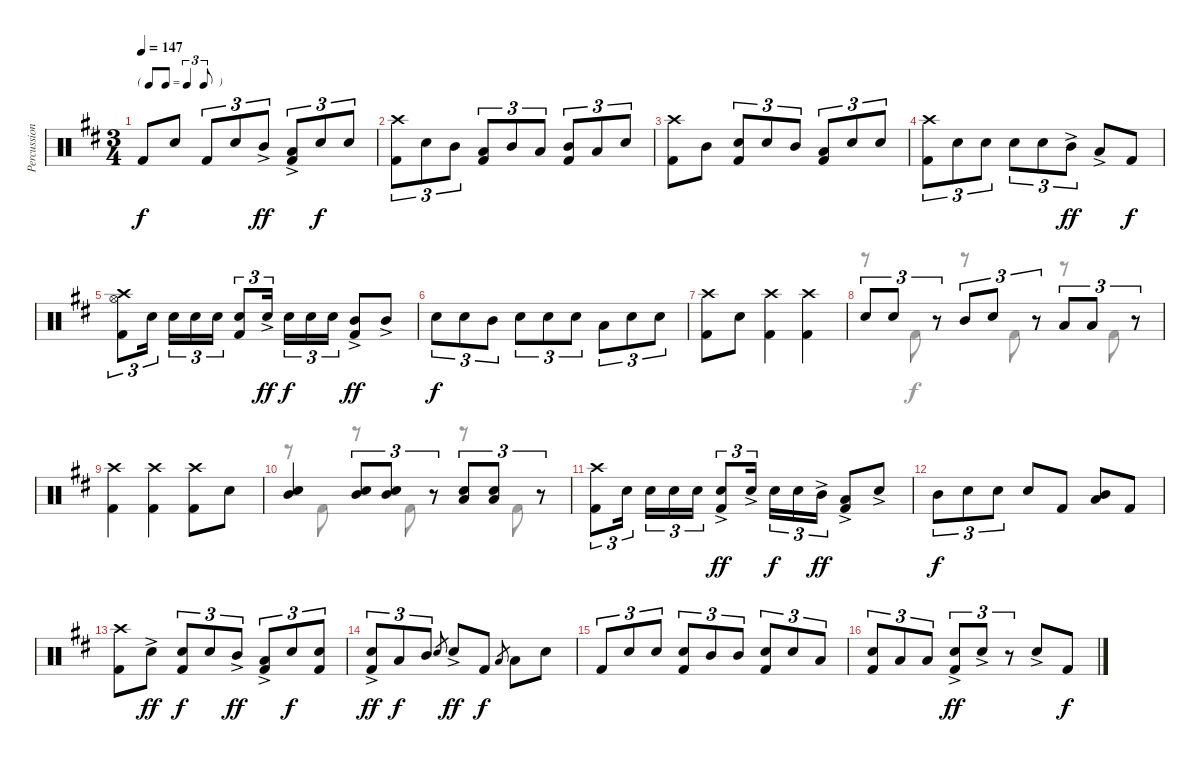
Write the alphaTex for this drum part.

\track ("Percussion" "Percussion") {instrument percussion}
\staff {score}
\articulation defaults
\voice
\ts (3 4)
\tf triplet8th
\tempo 147
\clef neutral
\ks d "Kick (hit) 2".8{dy f} "Snare (hit) 2".8 "Kick (hit) 2".8{tu (3 2)} "Snare (hit) 2".8{tu (3 2)} "Mid Tom (hit)"{ac}.8{tu (3 2) dy ff}
("Low Tom (hit)"{ac} "Kick (hit) 2").8{tu (3 2)} "Snare (hit) 2".8{tu (3 2) dy f} "Snare (hit) 2".8{tu (3 2)} |
("Crash high (hit)" "Kick (hit) 2").8{tu (3 2)} "Snare (hit) 2".8{tu (3 2)} "Mid Tom (hit)".8{tu (3 2)} ("Low Floor Tom (hit)" "Kick (hit) 2").8{tu (3 2)} "Mid Tom (hit)".8{tu (3 2)} "Low Floor Tom (hit)".8{tu (3 2)} ("Mid Tom (hit)" "Kick (hit) 2").8{tu (3 2)} "Low Floor Tom (hit)".8{tu (3 2)} "Snare (hit) 2".8{tu (3 2)} |
("Crash high (hit)" "Kick (hit) 2").8 "Mid Tom (hit)".8 ("Snare (hit) 2" "Kick (hit) 2").8{tu (3 2)} "Snare (hit) 2".8{tu (3 2)} "Mid Tom (hit)".8{tu (3 2)} ("Low Floor Tom (hit)" "Kick (hit) 2").8{tu (3 2)} "Snare (hit) 2".8{tu (3 2)} "Snare (hit) 2".8{tu (3 2)} |
("Crash high (hit)" "Kick (hit) 2").8{tu (3 2)} "Snare (hit) 2".8{tu (3 2)} "Snare (hit) 2".8{tu (3 2)} "Snare (hit) 2".8{tu (3 2)} "Snare (hit) 2".8{tu (3 2)} "Mid Tom (hit)"{ac}.8{tu (3 2) dy ff} "Low Tom (hit)"{ac}.8 "Kick (hit) 2".8{dy f} |
("Crash high (hit)" "Hi-Hat (open)" "Kick (hit) 2").8{tu (3 2)} "Snare (hit) 2".16{tu (3 2) beam splitsecondary} "Snare (hit) 2".16{tu (3 2)} "Snare (hit) 2".16{tu (3 2)} "Snare (hit) 2".16{tu (3 2)} ("Snare (hit) 2" "Kick (hit) 2").8{tu (3 2)} "Snare (hit) 2"{ac}.16{tu (3 2) dy ff beam splitsecondary} "Snare (hit) 2".16{tu (3 2) dy f} "Snare (hit) 2".16{tu (3 2)} "Snare (hit) 2".16{tu (3 2)} ("Mid Tom (hit)"{ac} "Kick (hit) 2").8{dy ff} "Mid Tom (hit)"{ac}.8 |
"Snare (hit) 2".8{tu (3 2) dy f} "Snare (hit) 2".8{tu (3 2)} "Mid Tom (hit)".8{tu (3 2)} "Snare (hit) 2".8{tu (3 2)} "Snare (hit) 2".8{tu (3 2)} "Snare (hit) 2".8{tu (3 2)} "Low Tom (hit)".8{tu (3 2)} "Snare (hit) 2".8{tu (3 2)} "Snare (hit) 2".8{tu (3 2)} |
("Crash high (hit)" "Kick (hit) 2").8 "Snare (hit) 2".8 ("Crash high (hit)" "Kick (hit) 2").4 ("Crash high (hit)" "Kick (hit) 2").4 |
"Snare (hit) 2".8{tu (3 2)} "Snare (hit) 2".8{tu (3 2)} r.8{tu (3 2)} "Mid Tom (hit)".8{tu (3 2)} "Snare (hit) 2".8{tu (3 2)} r.8{tu (3 2)} "Low Floor Tom (hit)".8{tu (3 2)} "Low Tom (hit)".8{tu (3 2)} r.8{tu (3 2)} |
("Crash high (hit)" "Kick (hit) 2").4 ("Crash high (hit)" "Kick (hit) 2").4 ("Crash high (hit)" "Kick (hit) 2").8 "Snare (hit) 2".8 |
("Mid Tom (hit)" "Snare (hit) 2").4 ("Mid Tom (hit)" "Snare (hit) 2").8{tu (3 2)} ("Mid Tom (hit)" "Snare (hit) 2").8{tu (3 2)} r.8{tu (3 2)} ("Snare (hit) 2" "Low Floor Tom (hit)").8{tu (3 2)} ("Snare (hit) 2" "Low Floor Tom (hit)").8{tu (3 2)} r.8{tu (3 2)} |
("Crash high (hit)" "Kick (hit) 2").8{tu (3 2)} "Snare (hit) 2".16{tu (3 2) beam splitsecondary} "Snare (hit) 2".16{tu (3 2)} "Snare (hit) 2".16{tu (3 2)} "Snare (hit) 2".16{tu (3 2)} ("Snare (hit) 2"{ac} "Kick (hit) 2"{ac}).8{tu (3 2) dy ff} "Snare (hit) 2"{ac}.16{tu (3 2) beam splitsecondary} "Snare (hit) 2".16{tu (3 2) dy f} "Snare (hit) 2".16{tu (3 2)} "Mid Tom (hit)"{ac}.16{tu (3 2) dy ff} ("Low Tom (hit)"{ac} "Kick (hit) 2").8 "Snare (hit) 2"{ac}.8 |
"Mid Tom (hit)".8{tu (3 2) dy f} "Snare (hit) 2".8{tu (3 2)} "Snare (hit) 2".8{tu (3 2)} "Snare (hit) 2".8 "Kick (hit) 2".8 ("Mid Tom (hit)" "Low Floor Tom (hit)").8 "Kick (hit) 2".8 |
("Crash high (hit)" "Kick (hit) 2").8 "Snare (hit) 2"{ac}.8{dy ff} ("Snare (hit) 2" "Kick (hit) 2").8{tu (3 2) dy f} "Snare (hit) 2".8{tu (3 2)} "Mid Tom (hit)"{ac}.8{tu (3 2) dy ff} ("Low Tom (hit)"{ac} "Kick (hit) 2").8{tu (3 2)} "Snare (hit) 2".8{tu (3 2) dy f} ("Snare (hit) 2" "Kick (hit) 2").8{tu (3 2)} |
("Snare (hit) 2"{ac} "Kick (hit) 2").8{tu (3 2) dy ff} "Low Tom (hit)".8{tu (3 2) dy f} "Mid Tom (hit)".8{tu (3 2)} "Snare (hit) 2".8{gr} "Snare (hit) 2"{ac}.8{dy ff} "Kick (hit) 2".8{dy f} "Low Floor Tom (hit)".8{gr} "Low Floor Tom (hit)".8 "Snare (hit) 2".8 |
"Kick (hit) 2".8{tu (3 2)} "Snare (hit) 2".8{tu (3 2)} "Snare (hit) 2".8{tu (3 2)} ("Snare (hit) 2" "Kick (hit) 2").8{tu (3 2)} "Mid Tom (hit)".8{tu (3 2)} "Mid Tom (hit)".8{tu (3 2)} ("Snare (hit) 2" "Kick (hit) 2").8{tu (3 2)} "Snare (hit) 2".8{tu (3 2)} "Low Tom (hit)".8{tu (3 2)} |
("Snare (hit) 2" "Kick (hit) 2").8{tu (3 2)} "Low Floor Tom (hit)".8{tu (3 2)} "Low Floor Tom (hit)".8{tu (3 2)} ("Snare (hit) 2"{ac} "Kick (hit) 2").8{tu (3 2) dy ff} "Snare (hit) 2"{ac}.8{tu (3 2)} r.8{tu (3 2)} "Snare (hit) 2"{ac}.8 "Kick (hit) 2".8{dy f}
\voice
\clef neutral
\ottava regular
\simile none
\ks d
|
|
|
|
|
|
|
r.8 "Kick (hit) 2".8 r.8 "Kick (hit) 2".8 r.8 "Kick (hit) 2".8 |
|
r.8 "Kick (hit) 2".8 r.8 "Kick (hit) 2".8 r.8 "Kick (hit) 2".8 |
|
|
|
|
|
